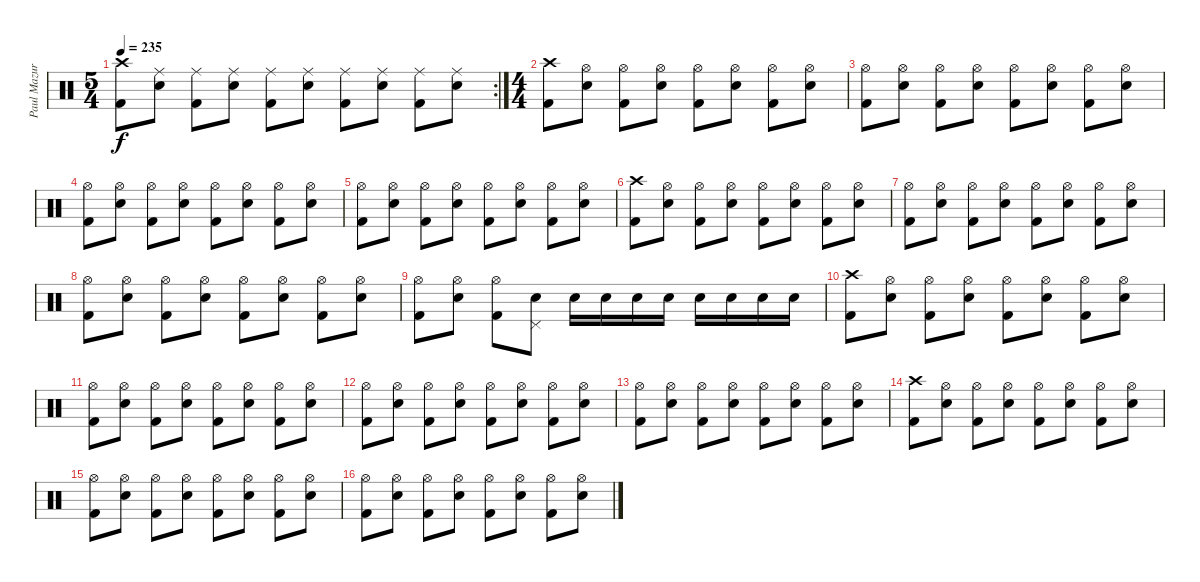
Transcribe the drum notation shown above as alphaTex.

\track ("Paul Mazurkiewicz" "Paul Mazur") {instrument percussion}
\staff {score}
\articulation defaults
\rc 2
\ts (5 4)
\tempo 235
\clef neutral
\ks c
("Crash high (hit)" "Kick (hit) 2").8{dy f} ("Ride (middle)" "Electric Snare (hit)").8 ("Ride (middle)" "Kick (hit) 2").8 ("Ride (middle)" "Electric Snare (hit)").8 ("Ride (middle)" "Kick (hit) 2").8 ("Ride (middle)" "Electric Snare (hit)").8 ("Ride (middle)" "Kick (hit) 2").8 ("Ride (middle)" "Electric Snare (hit)").8 ("Ride (middle)" "Kick (hit) 2").8 ("Ride (middle)" "Electric Snare (hit)").8 |
\ts (4 4)
("Crash high (hit)" "Kick (hit) 2").8 ("Hi-Hat (open)" "Electric Snare (hit)").8 ("Hi-Hat (open)" "Kick (hit) 2").8 ("Hi-Hat (open)" "Electric Snare (hit)").8 ("Hi-Hat (open)" "Kick (hit) 2").8 ("Hi-Hat (open)" "Electric Snare (hit)").8 ("Hi-Hat (open)" "Kick (hit) 2").8 ("Hi-Hat (open)" "Electric Snare (hit)").8 |
("Hi-Hat (open)" "Kick (hit) 2").8 ("Hi-Hat (open)" "Electric Snare (hit)").8 ("Hi-Hat (open)" "Kick (hit) 2").8 ("Hi-Hat (open)" "Electric Snare (hit)").8 ("Hi-Hat (open)" "Kick (hit) 2").8 ("Hi-Hat (open)" "Electric Snare (hit)").8 ("Hi-Hat (open)" "Kick (hit) 2").8 ("Hi-Hat (open)" "Electric Snare (hit)").8 |
("Hi-Hat (open)" "Kick (hit) 2").8 ("Hi-Hat (open)" "Electric Snare (hit)").8 ("Hi-Hat (open)" "Kick (hit) 2").8 ("Hi-Hat (open)" "Electric Snare (hit)").8 ("Hi-Hat (open)" "Kick (hit) 2").8 ("Hi-Hat (open)" "Electric Snare (hit)").8 ("Hi-Hat (open)" "Kick (hit) 2").8 ("Hi-Hat (open)" "Electric Snare (hit)").8 |
("Hi-Hat (open)" "Kick (hit) 2").8 ("Hi-Hat (open)" "Electric Snare (hit)").8 ("Hi-Hat (open)" "Kick (hit) 2").8 ("Hi-Hat (open)" "Electric Snare (hit)").8 ("Hi-Hat (open)" "Kick (hit) 2").8 ("Hi-Hat (open)" "Electric Snare (hit)").8 ("Hi-Hat (open)" "Kick (hit) 2").8 ("Hi-Hat (open)" "Electric Snare (hit)").8 |
("Crash high (hit)" "Kick (hit) 2").8 ("Hi-Hat (open)" "Electric Snare (hit)").8 ("Hi-Hat (open)" "Kick (hit) 2").8 ("Hi-Hat (open)" "Electric Snare (hit)").8 ("Hi-Hat (open)" "Kick (hit) 2").8 ("Hi-Hat (open)" "Electric Snare (hit)").8 ("Hi-Hat (open)" "Kick (hit) 2").8 ("Hi-Hat (open)" "Electric Snare (hit)").8 |
("Hi-Hat (open)" "Kick (hit) 2").8 ("Hi-Hat (open)" "Electric Snare (hit)").8 ("Hi-Hat (open)" "Kick (hit) 2").8 ("Hi-Hat (open)" "Electric Snare (hit)").8 ("Hi-Hat (open)" "Kick (hit) 2").8 ("Hi-Hat (open)" "Electric Snare (hit)").8 ("Hi-Hat (open)" "Kick (hit) 2").8 ("Hi-Hat (open)" "Electric Snare (hit)").8 |
("Hi-Hat (open)" "Kick (hit) 2").8 ("Hi-Hat (open)" "Electric Snare (hit)").8 ("Hi-Hat (open)" "Kick (hit) 2").8 ("Hi-Hat (open)" "Electric Snare (hit)").8 ("Hi-Hat (open)" "Kick (hit) 2").8 ("Hi-Hat (open)" "Electric Snare (hit)").8 ("Hi-Hat (open)" "Kick (hit) 2").8 ("Hi-Hat (open)" "Electric Snare (hit)").8 |
("Hi-Hat (open)" "Kick (hit) 2").8 ("Hi-Hat (open)" "Electric Snare (hit)").8 ("Hi-Hat (open)" "Kick (hit) 2").8 ("Pedal Hi-Hat (hit)" "Electric Snare (hit)").8 "Electric Snare (hit)".16 "Electric Snare (hit)".16 "Electric Snare (hit)".16 "Electric Snare (hit)".16 "Electric Snare (hit)".16 "Electric Snare (hit)".16 "Electric Snare (hit)".16 "Electric Snare (hit)".16 |
("Crash high (hit)" "Kick (hit) 2").8 ("Hi-Hat (open)" "Electric Snare (hit)").8 ("Hi-Hat (open)" "Kick (hit) 2").8 ("Hi-Hat (open)" "Electric Snare (hit)").8 ("Hi-Hat (open)" "Kick (hit) 2").8 ("Hi-Hat (open)" "Electric Snare (hit)").8 ("Hi-Hat (open)" "Kick (hit) 2").8 ("Hi-Hat (open)" "Electric Snare (hit)").8 |
("Hi-Hat (open)" "Kick (hit) 2").8 ("Hi-Hat (open)" "Electric Snare (hit)").8 ("Hi-Hat (open)" "Kick (hit) 2").8 ("Hi-Hat (open)" "Electric Snare (hit)").8 ("Hi-Hat (open)" "Kick (hit) 2").8 ("Hi-Hat (open)" "Electric Snare (hit)").8 ("Hi-Hat (open)" "Kick (hit) 2").8 ("Hi-Hat (open)" "Electric Snare (hit)").8 |
("Hi-Hat (open)" "Kick (hit) 2").8 ("Hi-Hat (open)" "Electric Snare (hit)").8 ("Hi-Hat (open)" "Kick (hit) 2").8 ("Hi-Hat (open)" "Electric Snare (hit)").8 ("Hi-Hat (open)" "Kick (hit) 2").8 ("Hi-Hat (open)" "Electric Snare (hit)").8 ("Hi-Hat (open)" "Kick (hit) 2").8 ("Hi-Hat (open)" "Electric Snare (hit)").8 |
("Hi-Hat (open)" "Kick (hit) 2").8 ("Hi-Hat (open)" "Electric Snare (hit)").8 ("Hi-Hat (open)" "Kick (hit) 2").8 ("Hi-Hat (open)" "Electric Snare (hit)").8 ("Hi-Hat (open)" "Kick (hit) 2").8 ("Hi-Hat (open)" "Electric Snare (hit)").8 ("Hi-Hat (open)" "Kick (hit) 2").8 ("Hi-Hat (open)" "Electric Snare (hit)").8 |
("Crash high (hit)" "Kick (hit) 2").8 ("Hi-Hat (open)" "Electric Snare (hit)").8 ("Hi-Hat (open)" "Kick (hit) 2").8 ("Hi-Hat (open)" "Electric Snare (hit)").8 ("Hi-Hat (open)" "Kick (hit) 2").8 ("Hi-Hat (open)" "Electric Snare (hit)").8 ("Hi-Hat (open)" "Kick (hit) 2").8 ("Hi-Hat (open)" "Electric Snare (hit)").8 |
("Hi-Hat (open)" "Kick (hit) 2").8 ("Hi-Hat (open)" "Electric Snare (hit)").8 ("Hi-Hat (open)" "Kick (hit) 2").8 ("Hi-Hat (open)" "Electric Snare (hit)").8 ("Hi-Hat (open)" "Kick (hit) 2").8 ("Hi-Hat (open)" "Electric Snare (hit)").8 ("Hi-Hat (open)" "Kick (hit) 2").8 ("Hi-Hat (open)" "Electric Snare (hit)").8 |
("Hi-Hat (open)" "Kick (hit) 2").8 ("Hi-Hat (open)" "Electric Snare (hit)").8 ("Hi-Hat (open)" "Kick (hit) 2").8 ("Hi-Hat (open)" "Electric Snare (hit)").8 ("Hi-Hat (open)" "Kick (hit) 2").8 ("Hi-Hat (open)" "Electric Snare (hit)").8 ("Hi-Hat (open)" "Kick (hit) 2").8 ("Hi-Hat (open)" "Electric Snare (hit)").8
